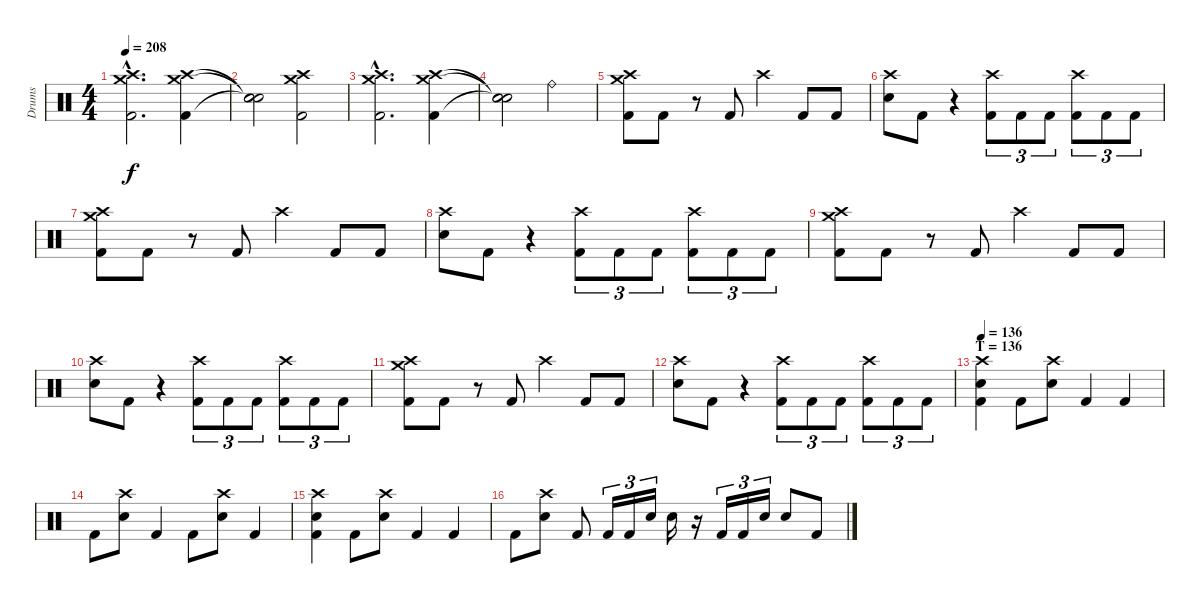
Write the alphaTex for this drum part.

\track ("Drums" "Drums") {instrument percussion}
\staff {score}
\articulation defaults
\ts (4 4)
\section ("" "")
\tempo 208
\clef neutral
\ks c
("Crash high (hit)"{hac} "Crash medium (hit)"{hac} "Kick (hit) 2"{hac}).2{d dy f} ("Crash high (hit)" "Crash medium (hit)" "Kick (hit) 2").4 |
("Snare (hit)"{t} "Snare (hit)"{t} "Snare (hit)"{t}).2 ("Crash high (hit)" "Crash medium (hit)" "Kick (hit) 2").2 |
("Crash high (hit)"{hac} "Crash medium (hit)"{hac} "Kick (hit) 2"{hac}).2{d} ("Crash high (hit)" "Crash medium (hit)" "Kick (hit) 2").4 |
("Snare (hit)"{t} "Snare (hit)"{t} "Snare (hit)"{t}).2 "Ride (bell)".2 |
\section ("" "")
("Crash high (hit)" "Crash medium (hit)" "Kick (hit) 2").8 "Kick (hit) 2".8 r.8 "Kick (hit) 2".8 "Crash high (hit)".4 "Kick (hit) 2".8 "Kick (hit) 2".8 |
("Crash high (hit)" "Electric Snare (hit)").8 "Kick (hit) 2".8 r.4 ("Crash high (hit)" "Kick (hit) 2").8{tu (3 2)} "Kick (hit) 2".8{tu (3 2)} "Kick (hit) 2".8{tu (3 2)} ("Crash high (hit)" "Kick (hit) 2").8{tu (3 2)} "Kick (hit) 2".8{tu (3 2)} "Kick (hit) 2".8{tu (3 2)} |
("Crash high (hit)" "Crash medium (hit)" "Kick (hit) 2").8 "Kick (hit) 2".8 r.8 "Kick (hit) 2".8 "Crash high (hit)".4 "Kick (hit) 2".8 "Kick (hit) 2".8 |
("Crash high (hit)" "Electric Snare (hit)").8 "Kick (hit) 2".8 r.4 ("Crash high (hit)" "Kick (hit) 2").8{tu (3 2)} "Kick (hit) 2".8{tu (3 2)} "Kick (hit) 2".8{tu (3 2)} ("Crash high (hit)" "Kick (hit) 2").8{tu (3 2)} "Kick (hit) 2".8{tu (3 2)} "Kick (hit) 2".8{tu (3 2)} |
("Crash high (hit)" "Crash medium (hit)" "Kick (hit) 2").8 "Kick (hit) 2".8 r.8 "Kick (hit) 2".8 "Crash high (hit)".4 "Kick (hit) 2".8 "Kick (hit) 2".8 |
("Crash high (hit)" "Electric Snare (hit)").8 "Kick (hit) 2".8 r.4 ("Crash high (hit)" "Kick (hit) 2").8{tu (3 2)} "Kick (hit) 2".8{tu (3 2)} "Kick (hit) 2".8{tu (3 2)} ("Crash high (hit)" "Kick (hit) 2").8{tu (3 2)} "Kick (hit) 2".8{tu (3 2)} "Kick (hit) 2".8{tu (3 2)} |
("Crash high (hit)" "Crash medium (hit)" "Kick (hit) 2").8 "Kick (hit) 2".8 r.8 "Kick (hit) 2".8 "Crash high (hit)".4 "Kick (hit) 2".8 "Kick (hit) 2".8 |
("Crash high (hit)" "Electric Snare (hit)").8 "Kick (hit) 2".8 r.4 ("Crash high (hit)" "Kick (hit) 2").8{tu (3 2)} "Kick (hit) 2".8{tu (3 2)} "Kick (hit) 2".8{tu (3 2)} ("Crash high (hit)" "Kick (hit) 2").8{tu (3 2)} "Kick (hit) 2".8{tu (3 2)} "Kick (hit) 2".8{tu (3 2)} |
\section ("" "T = 136")
\tempo 136
("Crash high (hit)" "Electric Snare (hit)" "Kick (hit) 2").4 "Kick (hit) 2".8 ("Crash high (hit)" "Electric Snare (hit)").8 "Kick (hit) 2".4 "Kick (hit) 2".4 |
"Kick (hit) 2".8 ("Crash high (hit)" "Electric Snare (hit)").8 "Kick (hit) 2".4 "Kick (hit) 2".8 ("Crash high (hit)" "Electric Snare (hit)").8 "Kick (hit) 2".4 |
("Crash high (hit)" "Electric Snare (hit)" "Kick (hit) 2").4 "Kick (hit) 2".8 ("Crash high (hit)" "Electric Snare (hit)").8 "Kick (hit) 2".4 "Kick (hit) 2".4 |
"Kick (hit) 2".8 ("Crash high (hit)" "Electric Snare (hit)").8 "Kick (hit) 2".8 "Kick (hit) 2".16{tu (3 2)} "Kick (hit) 2".16{tu (3 2)} "Electric Snare (hit)".16{tu (3 2)} "Electric Snare (hit)".16 r.16 "Kick (hit) 2".16{tu (3 2)} "Kick (hit) 2".16{tu (3 2)} "Electric Snare (hit)".16{tu (3 2)} "Electric Snare (hit)".8 "Kick (hit) 2".8
